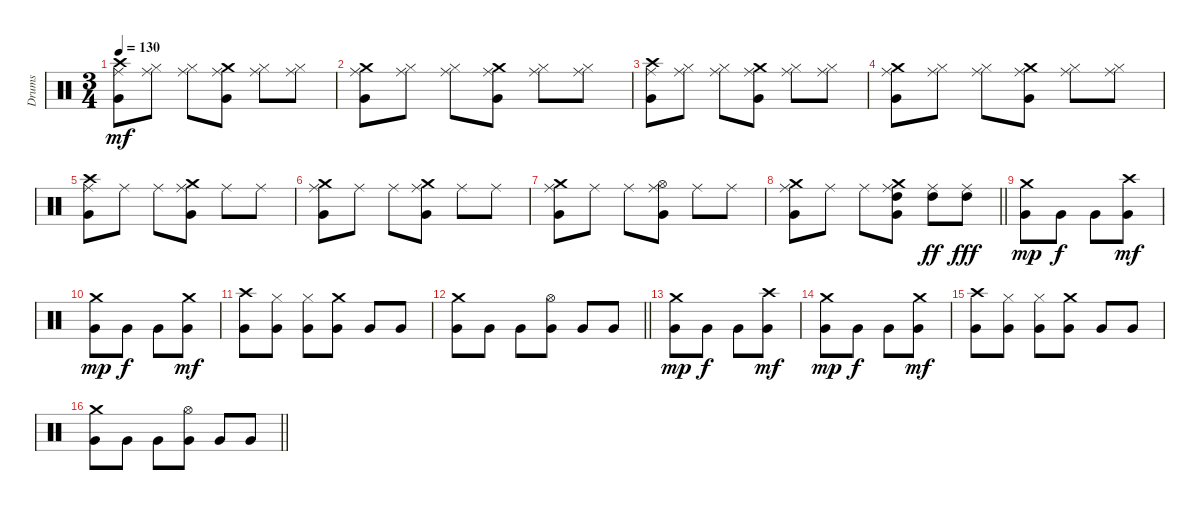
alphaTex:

\track ("Drums" "Drums") {instrument percussion}
\staff {score}
\articulation defaults
\ts (3 4)
\tempo 130
\clef neutral
\ks c
("Crash high (hit)" "Very Low Tom (hit)" "Ride (middle)").8{dy mf} ("Hi-Hat (closed)" "Ride (middle)").8 ("Hi-Hat (closed)" "Ride (middle)").8 ("Crash medium (hit)" "Very Low Tom (hit)" "Ride (middle)").8 ("Hi-Hat (closed)" "Ride (middle)").8 ("Hi-Hat (closed)" "Ride (middle)").8 |
("Crash medium (hit)" "Very Low Tom (hit)" "Ride (middle)").8 ("Hi-Hat (closed)" "Ride (middle)").8 ("Hi-Hat (closed)" "Ride (middle)").8 ("Crash medium (hit)" "Very Low Tom (hit)" "Ride (middle)").8 ("Hi-Hat (closed)" "Ride (middle)").8 ("Hi-Hat (closed)" "Ride (middle)").8 |
("Crash high (hit)" "Very Low Tom (hit)" "Ride (middle)").8 ("Hi-Hat (closed)" "Ride (middle)").8 ("Hi-Hat (closed)" "Ride (middle)").8 ("Crash medium (hit)" "Very Low Tom (hit)" "Ride (middle)").8 ("Hi-Hat (closed)" "Ride (middle)").8 ("Hi-Hat (closed)" "Ride (middle)").8 |
("Crash medium (hit)" "Very Low Tom (hit)" "Ride (middle)").8 ("Hi-Hat (closed)" "Ride (middle)").8 ("Hi-Hat (closed)" "Ride (middle)").8 ("Crash medium (hit)" "Very Low Tom (hit)" "Ride (middle)").8 ("Hi-Hat (closed)" "Ride (middle)").8 ("Hi-Hat (closed)" "Ride (middle)").8 |
("Crash high (hit)" "Very Low Tom (hit)" "Ride (middle)").8 "Ride (middle)".8 "Ride (middle)".8 ("Crash medium (hit)" "Very Low Tom (hit)" "Ride (middle)").8 "Ride (middle)".8 "Ride (middle)".8 |
("Crash medium (hit)" "Very Low Tom (hit)" "Ride (middle)").8 "Ride (middle)".8 "Ride (middle)".8 ("Crash medium (hit)" "Very Low Tom (hit)" "Ride (middle)").8 "Ride (middle)".8 "Ride (middle)".8 |
("Crash medium (hit)" "Very Low Tom (hit)" "Ride (middle)").8 "Ride (middle)".8 "Ride (middle)".8 ("Hi-Hat (open)" "Very Low Tom (hit)" "Ride (middle)").8 "Ride (middle)".8 "Ride (middle)".8 |
\barLineRight lightlight
("Crash medium (hit)" "Very Low Tom (hit)" "Ride (middle)").8 "Ride (middle)".8 "Ride (middle)".8 ("Crash medium (hit)" "Very Low Tom (hit)" "Ride (middle)" "High Tom (hit)").8 ("Ride (middle)" "High Tom (hit)").8{dy ff} ("Ride (middle)" "High Tom (hit)").8{dy fff} |
\section ("" "")
("Crash medium (hit)" "Very Low Tom (hit)").8{dy mp} "Very Low Tom (hit)".8{dy f} "Very Low Tom (hit)".8 ("Crash high (hit)" "Very Low Tom (hit)").8{dy mf} |
("Crash medium (hit)" "Very Low Tom (hit)").8{dy mp} "Very Low Tom (hit)".8{dy f} "Very Low Tom (hit)".8 ("Crash medium (hit)" "Very Low Tom (hit)").8{dy mf} |
("Crash high (hit)" "Very Low Tom (hit)").8 ("Hi-Hat (closed)" "Very Low Tom (hit)").8 ("Hi-Hat (closed)" "Very Low Tom (hit)").8 ("Crash medium (hit)" "Very Low Tom (hit)").8 "Very Low Tom (hit)".8 "Very Low Tom (hit)".8 |
\barLineRight lightlight
("Crash medium (hit)" "Very Low Tom (hit)").8 "Very Low Tom (hit)".8 "Very Low Tom (hit)".8 ("Hi-Hat (open)" "Very Low Tom (hit)").8 "Very Low Tom (hit)".8 "Very Low Tom (hit)".8 |
("Crash medium (hit)" "Very Low Tom (hit)").8{dy mp} "Very Low Tom (hit)".8{dy f} "Very Low Tom (hit)".8 ("Crash high (hit)" "Very Low Tom (hit)").8{dy mf} |
("Crash medium (hit)" "Very Low Tom (hit)").8{dy mp} "Very Low Tom (hit)".8{dy f} "Very Low Tom (hit)".8 ("Crash medium (hit)" "Very Low Tom (hit)").8{dy mf} |
("Crash high (hit)" "Very Low Tom (hit)").8 ("Hi-Hat (closed)" "Very Low Tom (hit)").8 ("Hi-Hat (closed)" "Very Low Tom (hit)").8 ("Crash medium (hit)" "Very Low Tom (hit)").8 "Very Low Tom (hit)".8 "Very Low Tom (hit)".8 |
\barLineRight lightlight
("Crash medium (hit)" "Very Low Tom (hit)").8 "Very Low Tom (hit)".8 "Very Low Tom (hit)".8 ("Hi-Hat (open)" "Very Low Tom (hit)").8 "Very Low Tom (hit)".8 "Very Low Tom (hit)".8
